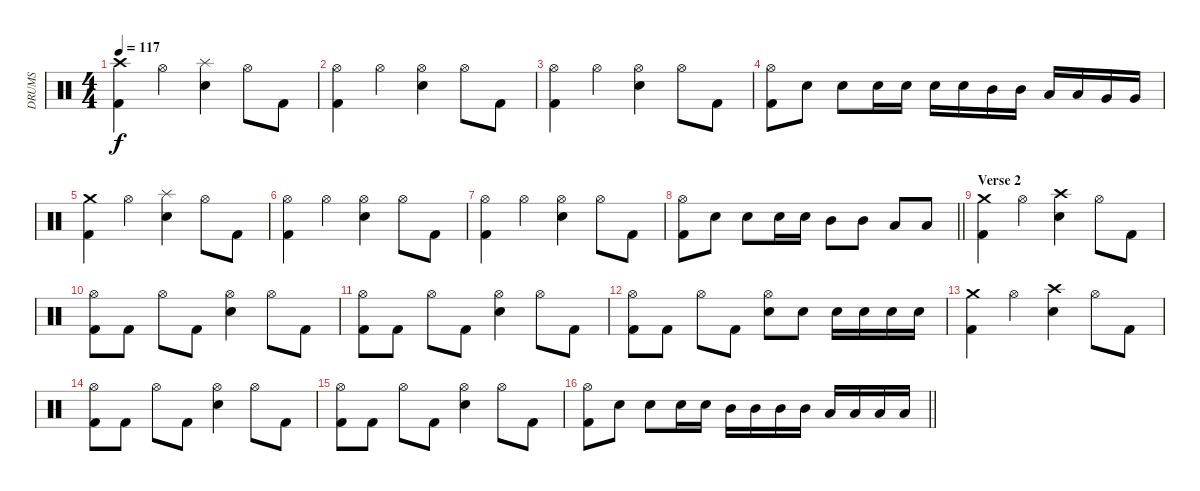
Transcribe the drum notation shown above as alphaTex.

\track ("DRUMS" "DRUMS") {instrument percussion}
\staff {score}
\articulation defaults
\ts (4 4)
\tempo 117
\clef neutral
\ks c
("Crash high (hit)" "Kick (hit) 2").4{dy f} "Hi-Hat (open)".4 ("Splash (hit)" "Snare (hit) 2").4 "Hi-Hat (open)".8 "Kick (hit) 2".8 |
("Hi-Hat (open)" "Kick (hit) 2").4 "Hi-Hat (open)".4 ("Hi-Hat (open)" "Snare (hit) 2").4 "Hi-Hat (open)".8 "Kick (hit) 2".8 |
("Hi-Hat (open)" "Kick (hit) 2").4 "Hi-Hat (open)".4 ("Hi-Hat (open)" "Snare (hit) 2").4 "Hi-Hat (open)".8 "Kick (hit) 2".8 |
("Hi-Hat (open)" "Kick (hit) 2").8 "Snare (hit) 2".8 "Snare (hit) 2".8 "Snare (hit) 2".16 "Snare (hit) 2".16 "Snare (hit) 2".16 "Snare (hit) 2".16 "Mid Tom (hit)".16 "Mid Tom (hit)".16 "Low Tom (hit)".16 "Low Tom (hit)".16 "Very Low Tom (hit)".16 "Very Low Tom (hit)".16 |
("Crash medium (hit)" "Kick (hit) 2").4 "Hi-Hat (open)".4 ("Splash (hit)" "Snare (hit) 2").4 "Hi-Hat (open)".8 "Kick (hit) 2".8 |
("Hi-Hat (open)" "Kick (hit) 2").4 "Hi-Hat (open)".4 ("Hi-Hat (open)" "Snare (hit) 2").4 "Hi-Hat (open)".8 "Kick (hit) 2".8 |
("Hi-Hat (open)" "Kick (hit) 2").4 "Hi-Hat (open)".4 ("Hi-Hat (open)" "Snare (hit) 2").4 "Hi-Hat (open)".8 "Kick (hit) 2".8 |
\barLineRight lightlight
("Hi-Hat (open)" "Kick (hit) 2").8 "Snare (hit) 2".8 "Snare (hit) 2".8 "Snare (hit) 2".16 "Snare (hit) 2".16 "Mid Tom (hit)".8 "Mid Tom (hit)".8 "Low Tom (hit)".8 "Low Tom (hit)".8 |
\section ("" "Verse 2")
("Crash medium (hit)" "Kick (hit) 2").4 "Hi-Hat (open)".4 ("Crash high (hit)" "Snare (hit) 2").4 "Hi-Hat (open)".8 "Kick (hit) 2".8 |
("Hi-Hat (open)" "Kick (hit) 2").8 "Kick (hit) 2".8 "Hi-Hat (open)".8 "Kick (hit) 2".8 ("Hi-Hat (open)" "Snare (hit) 2").4 "Hi-Hat (open)".8 "Kick (hit) 2".8 |
("Hi-Hat (open)" "Kick (hit) 2").8 "Kick (hit) 2".8 "Hi-Hat (open)".8 "Kick (hit) 2".8 ("Hi-Hat (open)" "Snare (hit) 2").4 "Hi-Hat (open)".8 "Kick (hit) 2".8 |
("Hi-Hat (open)" "Kick (hit) 2").8 "Kick (hit) 2".8 "Hi-Hat (open)".8 "Kick (hit) 2".8 ("Hi-Hat (open)" "Snare (hit) 2").8 "Snare (hit) 2".8 "Snare (hit) 2".16 "Snare (hit) 2".16 "Snare (hit) 2".16 "Snare (hit) 2".16 |
("Crash medium (hit)" "Kick (hit) 2").4 "Hi-Hat (open)".4 ("Crash high (hit)" "Snare (hit) 2").4 "Hi-Hat (open)".8 "Kick (hit) 2".8 |
("Hi-Hat (open)" "Kick (hit) 2").8 "Kick (hit) 2".8 "Hi-Hat (open)".8 "Kick (hit) 2".8 ("Hi-Hat (open)" "Snare (hit) 2").4 "Hi-Hat (open)".8 "Kick (hit) 2".8 |
("Hi-Hat (open)" "Kick (hit) 2").8 "Kick (hit) 2".8 "Hi-Hat (open)".8 "Kick (hit) 2".8 ("Hi-Hat (open)" "Snare (hit) 2").4 "Hi-Hat (open)".8 "Kick (hit) 2".8 |
\barLineRight lightlight
("Hi-Hat (open)" "Kick (hit) 2").8 "Snare (hit) 2".8 "Snare (hit) 2".8 "Snare (hit) 2".16 "Snare (hit) 2".16 "Mid Tom (hit)".16 "Mid Tom (hit)".16 "Mid Tom (hit)".16 "Mid Tom (hit)".16 "Low Tom (hit)".16 "Low Tom (hit)".16 "Low Tom (hit)".16 "Low Tom (hit)".16
